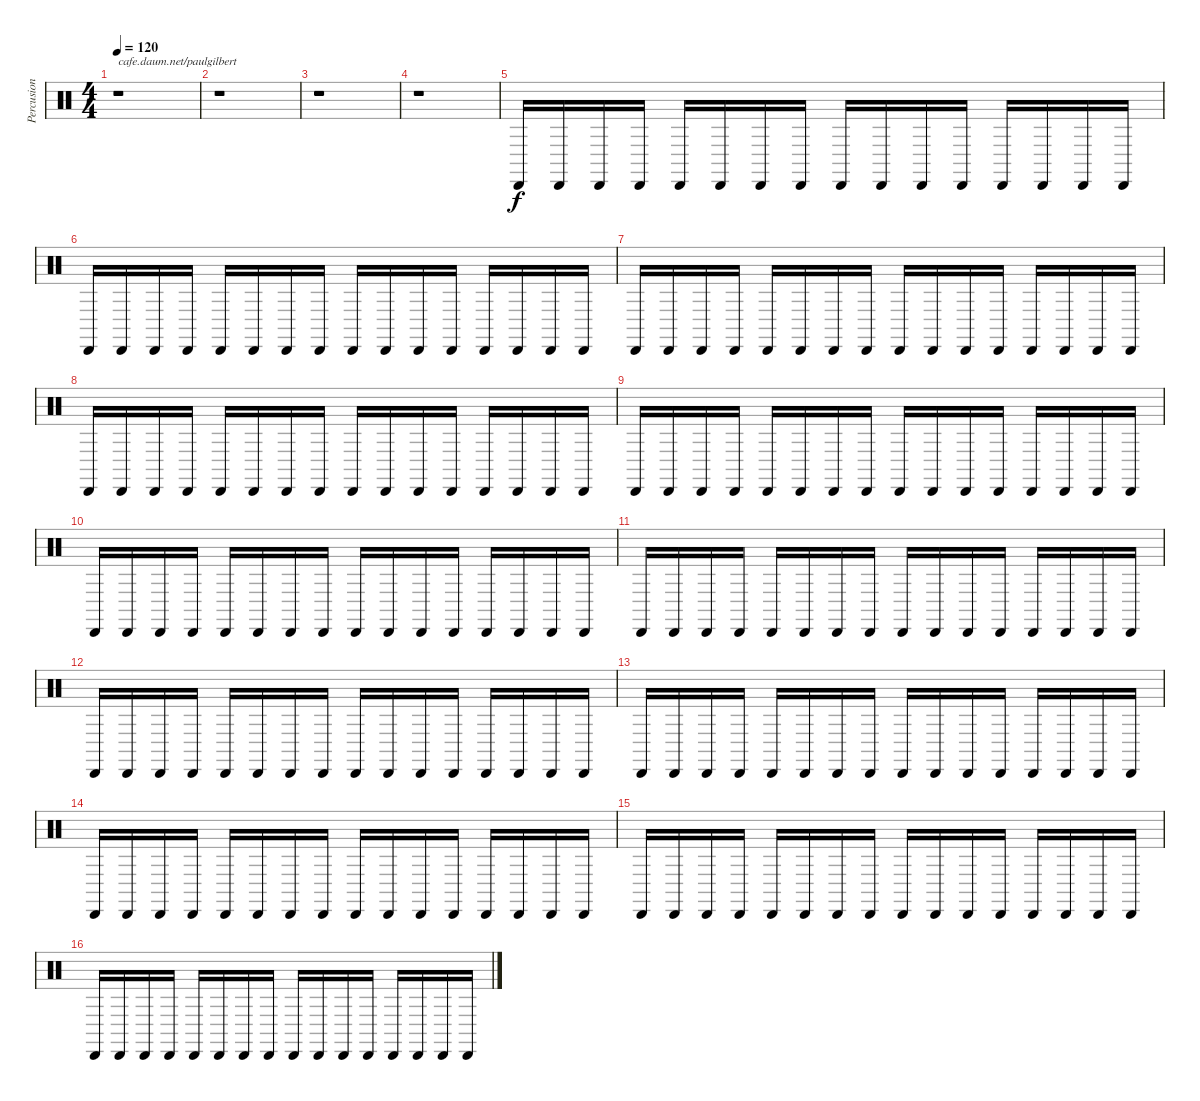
\track ("Percusion" "Percusion") {instrument percussion}
\staff {score}
\articulation defaults
\ts (4 4)
\tempo 120
\clef neutral
\ks c
r.1{txt "cafe.daum.net/paulgilbert" dy f} |
r.1 |
r.1 |
r.1 |
"Cabasa (hit)".16 "Cabasa (hit)".16 "Cabasa (hit)".16 "Cabasa (hit)".16 "Cabasa (hit)".16 "Cabasa (hit)".16 "Cabasa (hit)".16 "Cabasa (hit)".16 "Cabasa (hit)".16 "Cabasa (hit)".16 "Cabasa (hit)".16 "Cabasa (hit)".16 "Cabasa (hit)".16 "Cabasa (hit)".16 "Cabasa (hit)".16 "Cabasa (hit)".16 |
"Cabasa (hit)".16 "Cabasa (hit)".16 "Cabasa (hit)".16 "Cabasa (hit)".16 "Cabasa (hit)".16 "Cabasa (hit)".16 "Cabasa (hit)".16 "Cabasa (hit)".16 "Cabasa (hit)".16 "Cabasa (hit)".16 "Cabasa (hit)".16 "Cabasa (hit)".16 "Cabasa (hit)".16 "Cabasa (hit)".16 "Cabasa (hit)".16 "Cabasa (hit)".16 |
"Cabasa (hit)".16 "Cabasa (hit)".16 "Cabasa (hit)".16 "Cabasa (hit)".16 "Cabasa (hit)".16 "Cabasa (hit)".16 "Cabasa (hit)".16 "Cabasa (hit)".16 "Cabasa (hit)".16 "Cabasa (hit)".16 "Cabasa (hit)".16 "Cabasa (hit)".16 "Cabasa (hit)".16 "Cabasa (hit)".16 "Cabasa (hit)".16 "Cabasa (hit)".16 |
"Cabasa (hit)".16 "Cabasa (hit)".16 "Cabasa (hit)".16 "Cabasa (hit)".16 "Cabasa (hit)".16 "Cabasa (hit)".16 "Cabasa (hit)".16 "Cabasa (hit)".16 "Cabasa (hit)".16 "Cabasa (hit)".16 "Cabasa (hit)".16 "Cabasa (hit)".16 "Cabasa (hit)".16 "Cabasa (hit)".16 "Cabasa (hit)".16 "Cabasa (hit)".16 |
"Cabasa (hit)".16 "Cabasa (hit)".16 "Cabasa (hit)".16 "Cabasa (hit)".16 "Cabasa (hit)".16 "Cabasa (hit)".16 "Cabasa (hit)".16 "Cabasa (hit)".16 "Cabasa (hit)".16 "Cabasa (hit)".16 "Cabasa (hit)".16 "Cabasa (hit)".16 "Cabasa (hit)".16 "Cabasa (hit)".16 "Cabasa (hit)".16 "Cabasa (hit)".16 |
"Cabasa (hit)".16 "Cabasa (hit)".16 "Cabasa (hit)".16 "Cabasa (hit)".16 "Cabasa (hit)".16 "Cabasa (hit)".16 "Cabasa (hit)".16 "Cabasa (hit)".16 "Cabasa (hit)".16 "Cabasa (hit)".16 "Cabasa (hit)".16 "Cabasa (hit)".16 "Cabasa (hit)".16 "Cabasa (hit)".16 "Cabasa (hit)".16 "Cabasa (hit)".16 |
"Cabasa (hit)".16 "Cabasa (hit)".16 "Cabasa (hit)".16 "Cabasa (hit)".16 "Cabasa (hit)".16 "Cabasa (hit)".16 "Cabasa (hit)".16 "Cabasa (hit)".16 "Cabasa (hit)".16 "Cabasa (hit)".16 "Cabasa (hit)".16 "Cabasa (hit)".16 "Cabasa (hit)".16 "Cabasa (hit)".16 "Cabasa (hit)".16 "Cabasa (hit)".16 |
"Cabasa (hit)".16 "Cabasa (hit)".16 "Cabasa (hit)".16 "Cabasa (hit)".16 "Cabasa (hit)".16 "Cabasa (hit)".16 "Cabasa (hit)".16 "Cabasa (hit)".16 "Cabasa (hit)".16 "Cabasa (hit)".16 "Cabasa (hit)".16 "Cabasa (hit)".16 "Cabasa (hit)".16 "Cabasa (hit)".16 "Cabasa (hit)".16 "Cabasa (hit)".16 |
"Cabasa (hit)".16 "Cabasa (hit)".16 "Cabasa (hit)".16 "Cabasa (hit)".16 "Cabasa (hit)".16 "Cabasa (hit)".16 "Cabasa (hit)".16 "Cabasa (hit)".16 "Cabasa (hit)".16 "Cabasa (hit)".16 "Cabasa (hit)".16 "Cabasa (hit)".16 "Cabasa (hit)".16 "Cabasa (hit)".16 "Cabasa (hit)".16 "Cabasa (hit)".16 |
"Cabasa (hit)".16 "Cabasa (hit)".16 "Cabasa (hit)".16 "Cabasa (hit)".16 "Cabasa (hit)".16 "Cabasa (hit)".16 "Cabasa (hit)".16 "Cabasa (hit)".16 "Cabasa (hit)".16 "Cabasa (hit)".16 "Cabasa (hit)".16 "Cabasa (hit)".16 "Cabasa (hit)".16 "Cabasa (hit)".16 "Cabasa (hit)".16 "Cabasa (hit)".16 |
"Cabasa (hit)".16 "Cabasa (hit)".16 "Cabasa (hit)".16 "Cabasa (hit)".16 "Cabasa (hit)".16 "Cabasa (hit)".16 "Cabasa (hit)".16 "Cabasa (hit)".16 "Cabasa (hit)".16 "Cabasa (hit)".16 "Cabasa (hit)".16 "Cabasa (hit)".16 "Cabasa (hit)".16 "Cabasa (hit)".16 "Cabasa (hit)".16 "Cabasa (hit)".16 |
"Cabasa (hit)".16 "Cabasa (hit)".16 "Cabasa (hit)".16 "Cabasa (hit)".16 "Cabasa (hit)".16 "Cabasa (hit)".16 "Cabasa (hit)".16 "Cabasa (hit)".16 "Cabasa (hit)".16 "Cabasa (hit)".16 "Cabasa (hit)".16 "Cabasa (hit)".16 "Cabasa (hit)".16 "Cabasa (hit)".16 "Cabasa (hit)".16 "Cabasa (hit)".16
